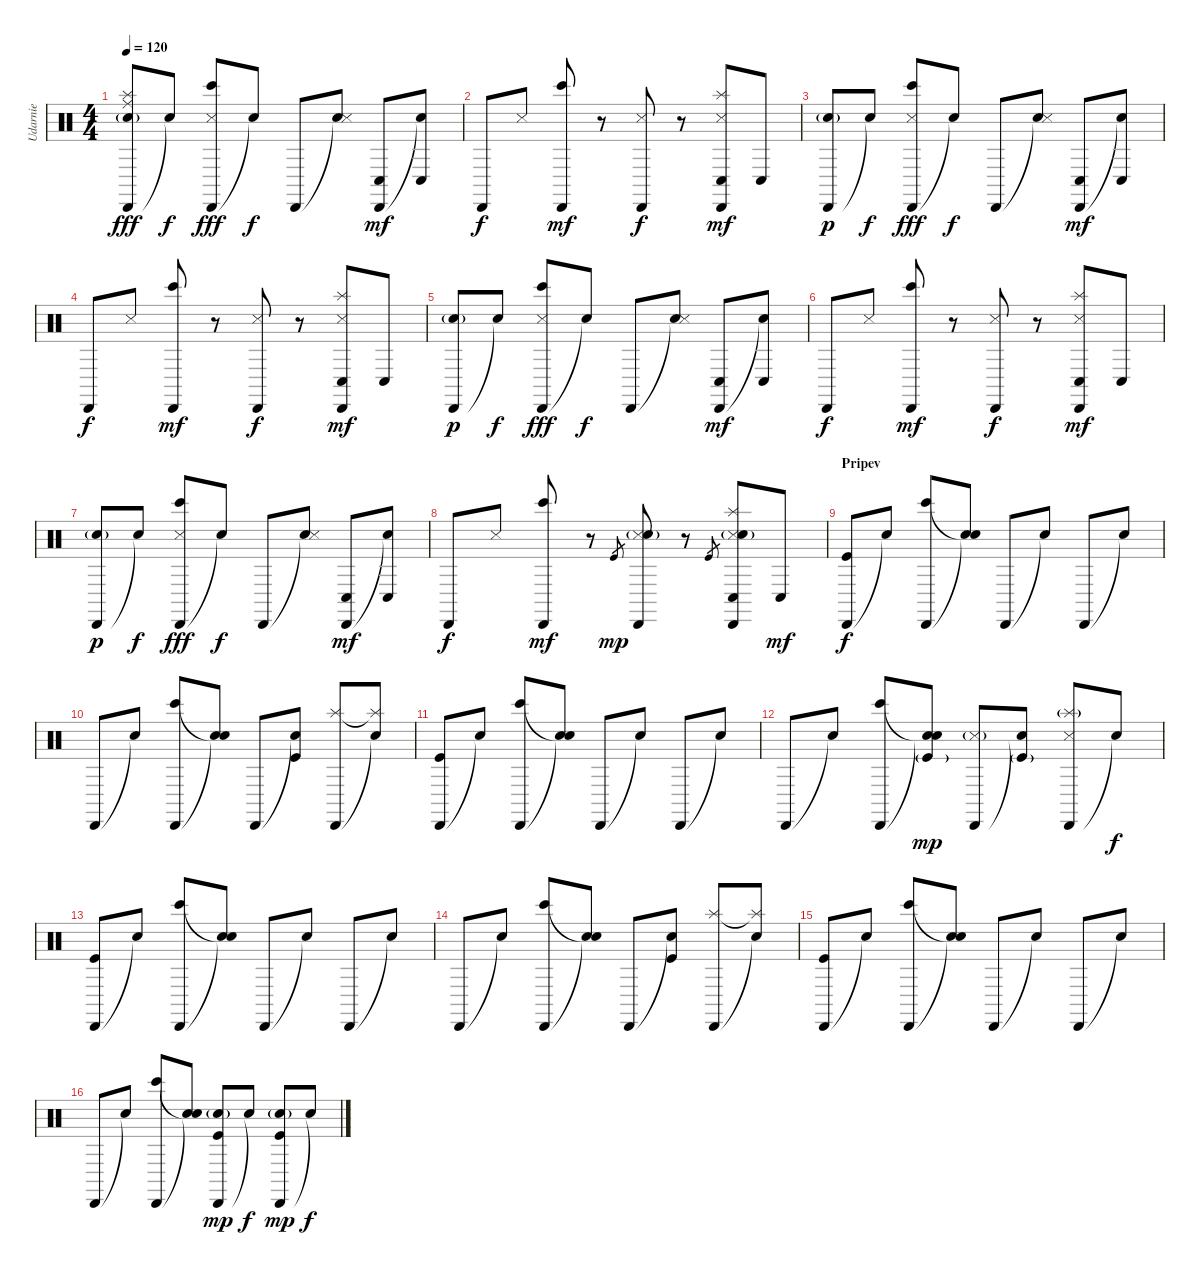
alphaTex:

\track ("Udarnie" "Udarnie") {instrument percussion}
\staff {score}
\articulation defaults
\ts (4 4)
\tempo 120
\clef neutral
\ks c
("Cabasa (hit)" "Electric Snare (hit)"{g} "Splash (hit)" "Ride (middle)").8{dy fff} "Snare (hit)"{t}.8{dy f} ("Cabasa (hit)" "Bongo High (hit)" "Snare (side stick) 3").8{dy fff} "Snare (hit)"{t}.8{dy f} "Cabasa (hit)".8 ("Snare (hit)"{t} "Snare (side stick) 3").8 ("Cabasa (hit)" "Conga low (hit)").8{dy mf} ("Snare (hit)"{t} "Conga low (hit)").8 |
"Cabasa (hit)".8{dy f} "Snare (side stick) 3".8 ("Cabasa (hit)" "Bongo High (hit)").8{dy mf} r.8 ("Cabasa (hit)" "Snare (side stick) 3").8{dy f} r.8 ("Cabasa (hit)" "Conga low (hit)" "Snare (side stick) 3" "Splash (hit)").8{dy mf} "Conga low (hit)".8 |
("Cabasa (hit)" "Electric Snare (hit)"{g}).8{dy p} "Snare (hit)"{t}.8{dy f} ("Cabasa (hit)" "Bongo High (hit)" "Snare (side stick) 3").8{dy fff} "Snare (hit)"{t}.8{dy f} "Cabasa (hit)".8 ("Snare (hit)"{t} "Snare (side stick) 3").8 ("Cabasa (hit)" "Conga low (hit)").8{dy mf} ("Snare (hit)"{t} "Conga low (hit)").8 |
"Cabasa (hit)".8{dy f} "Snare (side stick) 3".8 ("Cabasa (hit)" "Bongo High (hit)").8{dy mf} r.8 ("Cabasa (hit)" "Snare (side stick) 3").8{dy f} r.8 ("Cabasa (hit)" "Conga low (hit)" "Snare (side stick) 3" "Splash (hit)").8{dy mf} "Conga low (hit)".8 |
("Cabasa (hit)" "Electric Snare (hit)"{g}).8{dy p} "Snare (hit)"{t}.8{dy f} ("Cabasa (hit)" "Bongo High (hit)" "Snare (side stick) 3").8{dy fff} "Snare (hit)"{t}.8{dy f} "Cabasa (hit)".8 ("Snare (hit)"{t} "Snare (side stick) 3").8 ("Cabasa (hit)" "Conga low (hit)").8{dy mf} ("Snare (hit)"{t} "Conga low (hit)").8 |
"Cabasa (hit)".8{dy f} "Snare (side stick) 3".8 ("Cabasa (hit)" "Bongo High (hit)").8{dy mf} r.8 ("Cabasa (hit)" "Snare (side stick) 3").8{dy f} r.8 ("Cabasa (hit)" "Conga low (hit)" "Snare (side stick) 3" "Splash (hit)").8{dy mf} "Conga low (hit)".8 |
("Cabasa (hit)" "Electric Snare (hit)"{g}).8{dy p} "Snare (hit)"{t}.8{dy f} ("Cabasa (hit)" "Bongo High (hit)" "Snare (side stick) 3").8{dy fff} "Snare (hit)"{t}.8{dy f} "Cabasa (hit)".8 ("Snare (hit)"{t} "Snare (side stick) 3").8 ("Cabasa (hit)" "Conga low (hit)").8{dy mf} ("Snare (hit)"{t} "Conga low (hit)").8 |
"Cabasa (hit)".8{dy f} "Snare (side stick) 3".8 ("Cabasa (hit)" "Bongo High (hit)").8{dy mf} r.8 "Kick (hit)".8{gr dy mp} ("Cabasa (hit)" "Snare (side stick) 3" "Electric Snare (hit)"{g}).8 r.8 "Kick (hit)".8{gr} ("Cabasa (hit)" "Conga low (hit)" "Snare (side stick) 3" "Splash (hit)" "Electric Snare (hit)"{g}).8 "Conga low (hit)".8{dy mf} |
\section ("" "Pripev")
("Cabasa (hit)" "Kick (hit)").8{dy f} "Snare (hit)"{t}.8 ("Cabasa (hit)" "Bongo High (hit)").8 ("Snare (hit)"{t} "Snare (hit)"{t}).8 "Cabasa (hit)".8 "Snare (hit)"{t}.8 "Cabasa (hit)".8 "Snare (hit)"{t}.8 |
"Cabasa (hit)".8 "Snare (hit)"{t}.8 ("Cabasa (hit)" "Bongo High (hit)").8 ("Snare (hit)"{t} "Snare (hit)"{t}).8 "Cabasa (hit)".8 ("Snare (hit)"{t} "Kick (hit)").8 ("Cabasa (hit)" "Splash (hit)").8 ("Snare (hit)"{t} "Splash (hit)"{t}).8 |
("Cabasa (hit)" "Kick (hit)").8 "Snare (hit)"{t}.8 ("Cabasa (hit)" "Bongo High (hit)").8 ("Snare (hit)"{t} "Snare (hit)"{t}).8 "Cabasa (hit)".8 "Snare (hit)"{t}.8 "Cabasa (hit)".8 "Snare (hit)"{t}.8 |
"Cabasa (hit)".8 "Snare (hit)"{t}.8 ("Cabasa (hit)" "Bongo High (hit)").8 ("Snare (hit)"{t} "Snare (hit)"{t} "Kick (hit)"{g}).8{dy mp} ("Cabasa (hit)" "Snare (side stick) 3"{g}).8 ("Snare (hit)"{t} "Kick (hit)"{g}).8 ("Cabasa (hit)" "Snare (side stick) 3" "Splash (hit)"{g}).8 "Snare (hit)"{t}.8{dy f} |
("Cabasa (hit)" "Kick (hit)").8 "Snare (hit)"{t}.8 ("Cabasa (hit)" "Bongo High (hit)").8 ("Snare (hit)"{t} "Snare (hit)"{t}).8 "Cabasa (hit)".8 "Snare (hit)"{t}.8 "Cabasa (hit)".8 "Snare (hit)"{t}.8 |
"Cabasa (hit)".8 "Snare (hit)"{t}.8 ("Cabasa (hit)" "Bongo High (hit)").8 ("Snare (hit)"{t} "Snare (hit)"{t}).8 "Cabasa (hit)".8 ("Snare (hit)"{t} "Kick (hit)").8 ("Cabasa (hit)" "Splash (hit)").8 ("Snare (hit)"{t} "Splash (hit)"{t}).8 |
("Cabasa (hit)" "Kick (hit)").8 "Snare (hit)"{t}.8 ("Cabasa (hit)" "Bongo High (hit)").8 ("Snare (hit)"{t} "Snare (hit)"{t}).8 "Cabasa (hit)".8 "Snare (hit)"{t}.8 "Cabasa (hit)".8 "Snare (hit)"{t}.8 |
"Cabasa (hit)".8 "Snare (hit)"{t}.8 ("Cabasa (hit)" "Bongo High (hit)").8 ("Snare (hit)"{t} "Snare (hit)"{t}).8 ("Cabasa (hit)" "Electric Snare (hit)"{g} "Kick (hit)").8{dy mp} "Snare (hit)"{t}.8{dy f} ("Cabasa (hit)" "Electric Snare (hit)"{g} "Kick (hit)").8{dy mp} "Snare (hit)"{t}.8{dy f}
